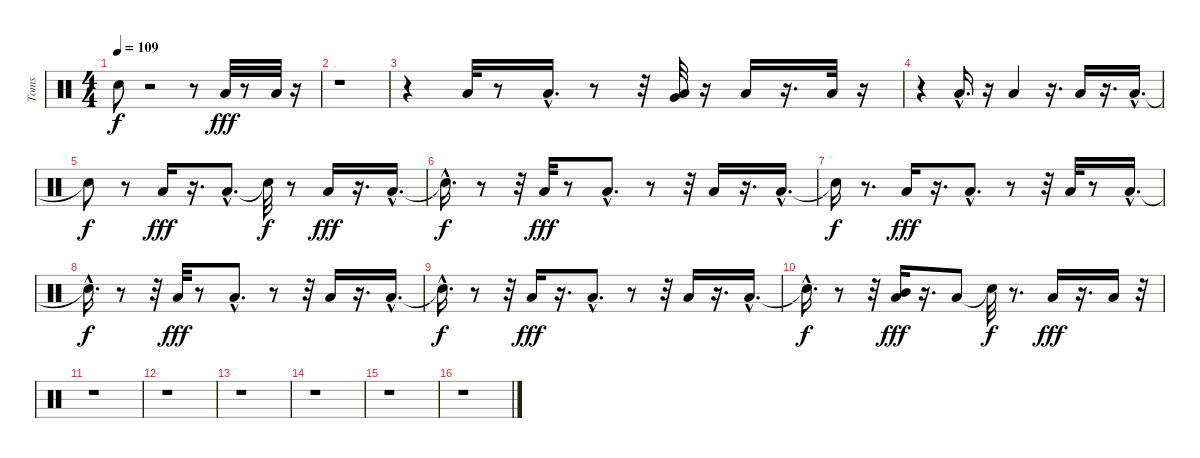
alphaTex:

\track ("Toms            " "Toms      ") {instrument percussion}
\staff {score}
\articulation defaults
\ts (4 4)
\tempo 109
\clef neutral
\ks c "Snare (hit)"{t}.8{dy f}
r.2 r.8 "Low Tom (hit)".32{dy fff} r.8 "Low Tom (hit)".32 r.16 |
r.1 |
r.4 "Low Tom (hit)".32 r.8 "Low Tom (hit)"{hac}.16{d} r.8 r.32 ("Low Floor Tom (hit)" "Very Low Tom (hit)").32 r.16 "Low Floor Tom (hit)".16 r.16{d} "Low Floor Tom (hit)".32 r.16 |
r.4 "Low Tom (hit)"{hac}.16{d} r.16 "Low Tom (hit)".4 r.16{d} "Low Tom (hit)".16 r.16{d} "Low Tom (hit)"{hac}.16{d} |
"Snare (hit)"{t}.8{dy f} r.8 "Low Tom (hit)".16{dy fff} r.16{d} "Low Tom (hit)"{hac}.8{d} "Snare (hit)"{t}.32{dy f} r.8 "Low Tom (hit)".16{dy fff} r.16{d} "Low Tom (hit)"{hac}.16{d} |
"Snare (hit)"{hac t}.16{d dy f} r.8 r.32 "Low Tom (hit)".32{dy fff} r.8 "Low Tom (hit)"{hac}.8{d} r.8 r.32 "Low Tom (hit)".16 r.16{d} "Low Tom (hit)"{hac}.16{d} |
"Snare (hit)"{t}.16{dy f} r.8{d} "Low Tom (hit)".16{dy fff} r.16{d} "Low Tom (hit)"{hac}.8{d} r.8 r.32 "Low Tom (hit)".32 r.8 "Low Tom (hit)"{hac}.16{d} |
"Snare (hit)"{hac t}.16{d dy f} r.8 r.32 "Low Tom (hit)".32{dy fff} r.8 "Low Tom (hit)"{hac}.8{d} r.8 r.32 "Low Tom (hit)".16 r.16{d} "Low Tom (hit)"{hac}.16{d} |
"Snare (hit)"{hac t}.16{d dy f} r.8 r.32 "Low Tom (hit)".16{dy fff} r.16{d} "Low Tom (hit)"{hac}.8{d} r.8 r.32 "Low Tom (hit)".16 r.16{d} "Low Tom (hit)"{hac}.16{d} |
"Snare (hit)"{hac t}.16{d dy f} r.8 r.32 ("Low Tom (hit)" "Mid Tom (hit)").16{dy fff} r.16{d} "Low Tom (hit)".8 "Snare (hit)"{t}.32{dy f} r.8{d} "Low Tom (hit)".16{dy fff} r.16{d} "Low Tom (hit)".16 r.32 |
r.1 |
r.1 |
r.1 |
r.1 |
r.1 |
r.1
